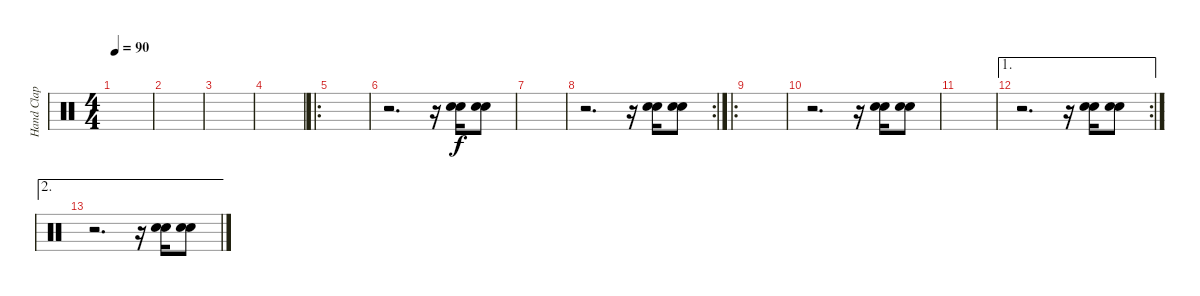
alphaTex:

\track ("Hand Clap" "Hand Clap") {instrument percussion}
\staff {score}
\articulation defaults
\ts (4 4)
\tempo 90
\clef neutral
\ks c
|
|
|
|
\ro
|
r.2{d} r.16 ("Hand Clap (hit)" "Hand Clap (hit)").16 ("Hand Clap (hit)" "Hand Clap (hit)").8 |
|
\rc 2
r.2{d} r.16 ("Hand Clap (hit)" "Hand Clap (hit)").16 ("Hand Clap (hit)" "Hand Clap (hit)").8 |
\ro
|
r.2{d} r.16 ("Hand Clap (hit)" "Hand Clap (hit)").16 ("Hand Clap (hit)" "Hand Clap (hit)").8 |
|
\ae 1
\rc 2
r.2{d} r.16 ("Hand Clap (hit)" "Hand Clap (hit)").16 ("Hand Clap (hit)" "Hand Clap (hit)").8 |
\ae 2
r.2{d} r.16 ("Hand Clap (hit)" "Hand Clap (hit)").16 ("Hand Clap (hit)" "Hand Clap (hit)").8
